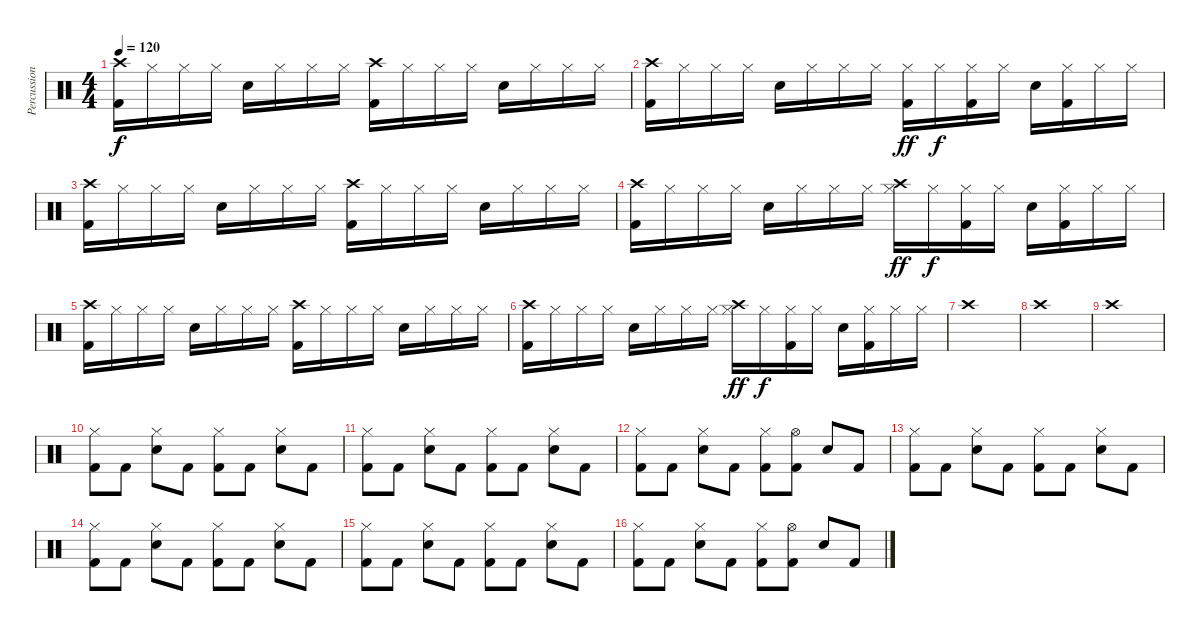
\track ("Percussions" "Percussion") {instrument percussion}
\staff {score}
\articulation defaults
\ts (4 4)
\tempo 120
\clef neutral
\ks c
("Crash high (hit)" "Kick (hit) 2").16{dy f} "Hi-Hat (closed)".16 "Hi-Hat (closed)".16 "Hi-Hat (closed)".16 "Snare (hit) 2".16 "Hi-Hat (closed)".16 "Hi-Hat (closed)".16 "Hi-Hat (closed)".16 ("Crash high (hit)" "Kick (hit) 2").16 "Hi-Hat (closed)".16 "Hi-Hat (closed)".16 "Hi-Hat (closed)".16 "Snare (hit) 2".16 "Hi-Hat (closed)".16 "Hi-Hat (closed)".16 "Hi-Hat (closed)".16 |
("Crash high (hit)" "Kick (hit) 2").16 "Hi-Hat (closed)".16 "Hi-Hat (closed)".16 "Hi-Hat (closed)".16 "Snare (hit) 2".16 "Hi-Hat (closed)".16 "Hi-Hat (closed)".16 "Hi-Hat (closed)".16 ("Hi-Hat (closed)" "Kick (hit) 2").16{dy ff} "Hi-Hat (closed)".16{dy f} ("Hi-Hat (closed)" "Kick (hit) 2").16 "Hi-Hat (closed)".16 "Snare (hit) 2".16 ("Hi-Hat (closed)" "Kick (hit) 2").16 "Hi-Hat (closed)".16 "Hi-Hat (closed)".16 |
("Crash high (hit)" "Kick (hit) 2").16 "Hi-Hat (closed)".16 "Hi-Hat (closed)".16 "Hi-Hat (closed)".16 "Snare (hit) 2".16 "Hi-Hat (closed)".16 "Hi-Hat (closed)".16 "Hi-Hat (closed)".16 ("Crash high (hit)" "Kick (hit) 2").16 "Hi-Hat (closed)".16 "Hi-Hat (closed)".16 "Hi-Hat (closed)".16 "Snare (hit) 2".16 "Hi-Hat (closed)".16 "Hi-Hat (closed)".16 "Hi-Hat (closed)".16 |
("Crash high (hit)" "Kick (hit) 2").16 "Hi-Hat (closed)".16 "Hi-Hat (closed)".16 "Hi-Hat (closed)".16 "Snare (hit) 2".16 "Hi-Hat (closed)".16 "Hi-Hat (closed)".16 "Hi-Hat (closed)".16 ("Hi-Hat (closed)" "Crash high (hit)").16{dy ff} "Hi-Hat (closed)".16{dy f} ("Hi-Hat (closed)" "Kick (hit) 2").16 "Hi-Hat (closed)".16 "Snare (hit) 2".16 ("Hi-Hat (closed)" "Kick (hit) 2").16 "Hi-Hat (closed)".16 "Hi-Hat (closed)".16 |
("Crash high (hit)" "Kick (hit) 2").16 "Hi-Hat (closed)".16 "Hi-Hat (closed)".16 "Hi-Hat (closed)".16 "Snare (hit) 2".16 "Hi-Hat (closed)".16 "Hi-Hat (closed)".16 "Hi-Hat (closed)".16 ("Crash high (hit)" "Kick (hit) 2").16 "Hi-Hat (closed)".16 "Hi-Hat (closed)".16 "Hi-Hat (closed)".16 "Snare (hit) 2".16 "Hi-Hat (closed)".16 "Hi-Hat (closed)".16 "Hi-Hat (closed)".16 |
("Crash high (hit)" "Kick (hit) 2").16 "Hi-Hat (closed)".16 "Hi-Hat (closed)".16 "Hi-Hat (closed)".16 "Snare (hit) 2".16 "Hi-Hat (closed)".16 "Hi-Hat (closed)".16 "Hi-Hat (closed)".16 ("Hi-Hat (closed)" "Crash high (hit)").16{dy ff} "Hi-Hat (closed)".16{dy f} ("Hi-Hat (closed)" "Kick (hit) 2").16 "Hi-Hat (closed)".16 "Snare (hit) 2".16 ("Hi-Hat (closed)" "Kick (hit) 2").16 "Hi-Hat (closed)".16 "Hi-Hat (closed)".16 |
"Crash high (hit)".1 |
"Crash high (hit)".1 |
"Crash high (hit)".1 |
("Hi-Hat (closed)" "Kick (hit) 2").8 "Kick (hit) 2".8 ("Hi-Hat (closed)" "Electric Snare (hit)").8 "Kick (hit) 2".8 ("Hi-Hat (closed)" "Kick (hit) 2").8 "Kick (hit) 2".8 ("Hi-Hat (closed)" "Electric Snare (hit)").8 "Kick (hit) 2".8 |
("Hi-Hat (closed)" "Kick (hit) 2").8 "Kick (hit) 2".8 ("Hi-Hat (closed)" "Electric Snare (hit)").8 "Kick (hit) 2".8 ("Hi-Hat (closed)" "Kick (hit) 2").8 "Kick (hit) 2".8 ("Hi-Hat (closed)" "Electric Snare (hit)").8 "Kick (hit) 2".8 |
("Hi-Hat (closed)" "Kick (hit) 2").8 "Kick (hit) 2".8 ("Hi-Hat (closed)" "Electric Snare (hit)").8 "Kick (hit) 2".8 ("Hi-Hat (closed)" "Kick (hit) 2").8 ("Hi-Hat (open)" "Kick (hit) 2").8 "Electric Snare (hit)".8 "Kick (hit) 2".8 |
("Hi-Hat (closed)" "Kick (hit) 2").8 "Kick (hit) 2".8 ("Hi-Hat (closed)" "Electric Snare (hit)").8 "Kick (hit) 2".8 ("Hi-Hat (closed)" "Kick (hit) 2").8 "Kick (hit) 2".8 ("Hi-Hat (closed)" "Electric Snare (hit)").8 "Kick (hit) 2".8 |
("Hi-Hat (closed)" "Kick (hit) 2").8 "Kick (hit) 2".8 ("Hi-Hat (closed)" "Electric Snare (hit)").8 "Kick (hit) 2".8 ("Hi-Hat (closed)" "Kick (hit) 2").8 "Kick (hit) 2".8 ("Hi-Hat (closed)" "Electric Snare (hit)").8 "Kick (hit) 2".8 |
("Hi-Hat (closed)" "Kick (hit) 2").8 "Kick (hit) 2".8 ("Hi-Hat (closed)" "Electric Snare (hit)").8 "Kick (hit) 2".8 ("Hi-Hat (closed)" "Kick (hit) 2").8 "Kick (hit) 2".8 ("Hi-Hat (closed)" "Electric Snare (hit)").8 "Kick (hit) 2".8 |
("Hi-Hat (closed)" "Kick (hit) 2").8 "Kick (hit) 2".8 ("Hi-Hat (closed)" "Electric Snare (hit)").8 "Kick (hit) 2".8 ("Hi-Hat (closed)" "Kick (hit) 2").8 ("Hi-Hat (open)" "Kick (hit) 2").8 "Electric Snare (hit)".8 "Kick (hit) 2".8
